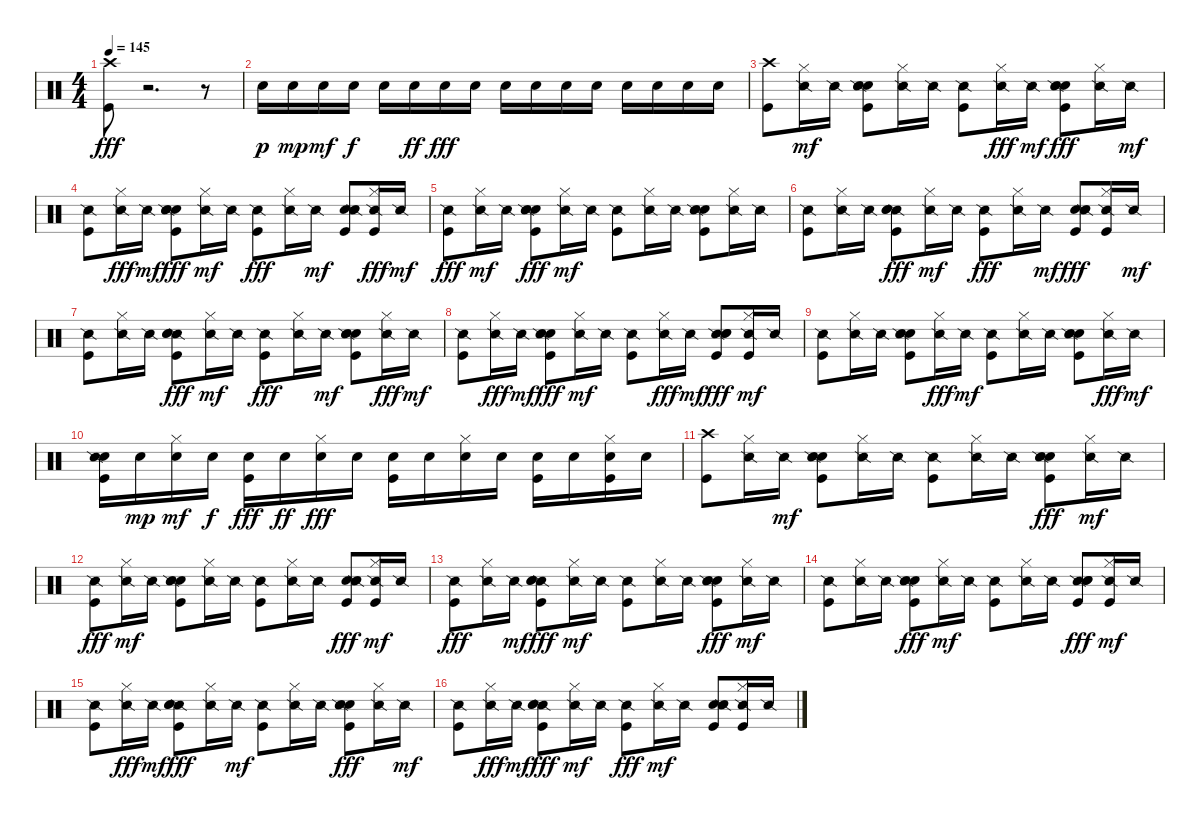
\track "" {instrument percussion}
\staff {score}
\articulation defaults
\ts (4 4)
\tempo 145
\clef neutral
\ks c
("Crash high (hit)" "Kick (hit)").8{dy fff} r.2{d} r.8 |
"Snare (hit) 2".16{dy p} "Snare (hit) 2".16{dy mp} "Snare (hit) 2".16{dy mf} "Snare (hit) 2".16{dy f} "Snare (hit) 2".16 "Snare (hit) 2".16{dy ff} "Snare (hit) 2".16{dy fff} "Snare (hit) 2".16 "Snare (hit) 2".16 "Snare (hit) 2".16 "Snare (hit) 2".16 "Snare (hit) 2".16 "Snare (hit) 2".16 "Snare (hit) 2".16 "Snare (hit) 2".16 "Snare (hit) 2".16 |
("Kick (hit)" "Crash high (hit)").8 ("Hi-Hat (closed)" "Snare (side stick) 2").16{dy mf} "Snare (side stick) 2".16 ("Kick (hit)" "Hand Clap (hit)" "Snare (side stick) 2" "Electric Snare (hit)").8 ("Hi-Hat (closed)" "Snare (side stick) 2").16 "Snare (side stick) 2".16 ("Kick (hit)" "Snare (side stick) 2").8 ("Snare (side stick) 2" "Hi-Hat (closed)").16{dy fff} "Snare (side stick) 2".16{dy mf} ("Hand Clap (hit)" "Electric Snare (hit)" "Snare (side stick) 2" "Kick (hit)").8{dy fff} ("Snare (side stick) 2" "Hi-Hat (closed)").16 "Snare (side stick) 2".16{dy mf} |
("Kick (hit)" "Snare (side stick) 2").8 ("Snare (side stick) 2" "Hi-Hat (closed)").16{dy fff} "Snare (side stick) 2".16{dy mf} ("Electric Snare (hit)" "Snare (side stick) 2" "Hand Clap (hit)" "Kick (hit)").8{dy fff} ("Hi-Hat (closed)" "Snare (side stick) 2").16{dy mf} "Snare (side stick) 2".16 ("Snare (side stick) 2" "Kick (hit)").8{dy fff} ("Snare (side stick) 2" "Hi-Hat (closed)").16 "Snare (side stick) 2".16{dy mf} ("Hand Clap (hit)" "Kick (hit)" "Snare (side stick) 2" "Electric Snare (hit)").8 ("Kick (hit)" "Snare (side stick) 2" "Hi-Hat (closed)").16{dy fff} "Snare (side stick) 2".16{dy mf} |
("Snare (side stick) 2" "Kick (hit)").8{dy fff} ("Hi-Hat (closed)" "Snare (side stick) 2").16{dy mf} "Snare (side stick) 2".16 ("Hand Clap (hit)" "Snare (side stick) 2" "Kick (hit)" "Electric Snare (hit)").8{dy fff} ("Hi-Hat (closed)" "Snare (side stick) 2").16{dy mf} "Snare (side stick) 2".16 ("Kick (hit)" "Snare (side stick) 2").8 ("Hi-Hat (closed)" "Snare (side stick) 2").16 "Snare (side stick) 2".16 ("Electric Snare (hit)" "Hand Clap (hit)" "Kick (hit)" "Snare (side stick) 2").8 ("Hi-Hat (closed)" "Snare (side stick) 2").16 "Snare (side stick) 2".16 |
("Kick (hit)" "Snare (side stick) 2").8 ("Hi-Hat (closed)" "Snare (side stick) 2").16 "Snare (side stick) 2".16 ("Snare (side stick) 2" "Kick (hit)" "Electric Snare (hit)" "Hand Clap (hit)").8{dy fff} ("Hi-Hat (closed)" "Snare (side stick) 2").16{dy mf} "Snare (side stick) 2".16 ("Snare (side stick) 2" "Kick (hit)").8{dy fff} ("Snare (side stick) 2" "Hi-Hat (closed)").16 "Snare (side stick) 2".16{dy mf} ("Electric Snare (hit)" "Kick (hit)" "Snare (side stick) 2" "Hand Clap (hit)").8{dy fff} ("Snare (side stick) 2" "Kick (hit)" "Hi-Hat (closed)").16 "Snare (side stick) 2".16{dy mf} |
("Kick (hit)" "Snare (side stick) 2").8 ("Hi-Hat (closed)" "Snare (side stick) 2").16 "Snare (side stick) 2".16 ("Snare (side stick) 2" "Electric Snare (hit)" "Hand Clap (hit)" "Kick (hit)").8{dy fff} ("Hi-Hat (closed)" "Snare (side stick) 2").16{dy mf} "Snare (side stick) 2".16 ("Snare (side stick) 2" "Kick (hit)").8{dy fff} ("Snare (side stick) 2" "Hi-Hat (closed)").16 "Snare (side stick) 2".16{dy mf} ("Hand Clap (hit)" "Electric Snare (hit)" "Kick (hit)" "Snare (side stick) 2").8 ("Snare (side stick) 2" "Hi-Hat (closed)").16{dy fff} "Snare (side stick) 2".16{dy mf} |
("Kick (hit)" "Snare (side stick) 2").8 ("Snare (side stick) 2" "Hi-Hat (closed)").16{dy fff} "Snare (side stick) 2".16{dy mf} ("Electric Snare (hit)" "Hand Clap (hit)" "Snare (side stick) 2" "Kick (hit)").8{dy fff} ("Hi-Hat (closed)" "Snare (side stick) 2").16{dy mf} "Snare (side stick) 2".16 ("Kick (hit)" "Snare (side stick) 2").8 ("Snare (side stick) 2" "Hi-Hat (closed)").16{dy fff} "Snare (side stick) 2".16{dy mf} ("Snare (side stick) 2" "Kick (hit)" "Hand Clap (hit)" "Electric Snare (hit)").8{dy fff} ("Kick (hit)" "Hi-Hat (closed)" "Snare (side stick) 2").16{dy mf} "Snare (side stick) 2".16 |
("Kick (hit)" "Snare (side stick) 2").8 ("Hi-Hat (closed)" "Snare (side stick) 2").16 "Snare (side stick) 2".16 ("Electric Snare (hit)" "Hand Clap (hit)" "Kick (hit)" "Snare (side stick) 2").8 ("Snare (side stick) 2" "Hi-Hat (closed)").16{dy fff} "Snare (side stick) 2".16{dy mf} ("Kick (hit)" "Snare (side stick) 2").8 ("Hi-Hat (closed)" "Snare (side stick) 2").16 "Snare (side stick) 2".16 ("Kick (hit)" "Hand Clap (hit)" "Electric Snare (hit)" "Snare (side stick) 2").8 ("Snare (side stick) 2" "Hi-Hat (closed)").16{dy fff} "Snare (side stick) 2".16{dy mf} |
("Kick (hit)" "Snare (hit) 2" "Snare (side stick) 2").16 "Snare (hit) 2".16{dy mp} ("Hi-Hat (closed)" "Snare (hit) 2").16{dy mf} "Snare (hit) 2".16{dy f} ("Kick (hit)" "Snare (hit) 2").16{dy fff} "Snare (hit) 2".16{dy ff} ("Snare (hit) 2" "Hi-Hat (closed)").16{dy fff} "Snare (hit) 2".16 ("Kick (hit)" "Snare (hit) 2").16 "Snare (hit) 2".16 ("Hi-Hat (closed)" "Snare (hit) 2").16 "Snare (hit) 2".16 ("Kick (hit)" "Snare (hit) 2").16 "Snare (hit) 2".16 ("Snare (hit) 2" "Hi-Hat (closed)" "Kick (hit)").16 "Snare (hit) 2".16 |
("Crash high (hit)" "Kick (hit)").8 ("Snare (side stick) 2" "Hi-Hat (closed)").16 "Snare (side stick) 2".16{dy mf} ("Electric Snare (hit)" "Hand Clap (hit)" "Kick (hit)" "Snare (side stick) 2").8 ("Hi-Hat (closed)" "Snare (side stick) 2").16 "Snare (side stick) 2".16 ("Kick (hit)" "Snare (side stick) 2").8 ("Hi-Hat (closed)" "Snare (side stick) 2").16 "Snare (side stick) 2".16 ("Electric Snare (hit)" "Snare (side stick) 2" "Hand Clap (hit)" "Kick (hit)").8{dy fff} ("Hi-Hat (closed)" "Snare (side stick) 2").16{dy mf} "Snare (side stick) 2".16 |
("Snare (side stick) 2" "Kick (hit)").8{dy fff} ("Hi-Hat (closed)" "Snare (side stick) 2").16{dy mf} "Snare (side stick) 2".16 ("Kick (hit)" "Hand Clap (hit)" "Electric Snare (hit)" "Snare (side stick) 2").8 ("Hi-Hat (closed)" "Snare (side stick) 2").16 "Snare (side stick) 2".16 ("Kick (hit)" "Snare (side stick) 2").8 ("Hi-Hat (closed)" "Snare (side stick) 2").16 "Snare (side stick) 2".16 ("Hand Clap (hit)" "Snare (side stick) 2" "Electric Snare (hit)" "Kick (hit)").8{dy fff} ("Hi-Hat (closed)" "Kick (hit)" "Snare (side stick) 2").16{dy mf} "Snare (side stick) 2".16 |
("Snare (side stick) 2" "Kick (hit)").8{dy fff} ("Snare (side stick) 2" "Hi-Hat (closed)").16 "Snare (side stick) 2".16{dy mf} ("Kick (hit)" "Snare (side stick) 2" "Hand Clap (hit)" "Electric Snare (hit)").8{dy fff} ("Hi-Hat (closed)" "Snare (side stick) 2").16{dy mf} "Snare (side stick) 2".16 ("Kick (hit)" "Snare (side stick) 2").8 ("Hi-Hat (closed)" "Snare (side stick) 2").16 "Snare (side stick) 2".16 ("Electric Snare (hit)" "Hand Clap (hit)" "Snare (side stick) 2" "Kick (hit)").8{dy fff} ("Hi-Hat (closed)" "Snare (side stick) 2").16{dy mf} "Snare (side stick) 2".16 |
("Kick (hit)" "Snare (side stick) 2").8 ("Hi-Hat (closed)" "Snare (side stick) 2").16 "Snare (side stick) 2".16 ("Hand Clap (hit)" "Electric Snare (hit)" "Snare (side stick) 2" "Kick (hit)").8{dy fff} ("Hi-Hat (closed)" "Snare (side stick) 2").16{dy mf} "Snare (side stick) 2".16 ("Kick (hit)" "Snare (side stick) 2").8 ("Hi-Hat (closed)" "Snare (side stick) 2").16 "Snare (side stick) 2".16 ("Snare (side stick) 2" "Kick (hit)" "Electric Snare (hit)" "Hand Clap (hit)").8{dy fff} ("Hi-Hat (closed)" "Kick (hit)" "Snare (side stick) 2").16{dy mf} "Snare (side stick) 2".16 |
("Kick (hit)" "Snare (side stick) 2").8 ("Snare (side stick) 2" "Hi-Hat (closed)").16{dy fff} "Snare (side stick) 2".16{dy mf} ("Snare (side stick) 2" "Electric Snare (hit)" "Hand Clap (hit)" "Kick (hit)").8{dy fff} ("Snare (side stick) 2" "Hi-Hat (closed)").16 "Snare (side stick) 2".16{dy mf} ("Kick (hit)" "Snare (side stick) 2").8 ("Hi-Hat (closed)" "Snare (side stick) 2").16 "Snare (side stick) 2".16 ("Electric Snare (hit)" "Snare (side stick) 2" "Kick (hit)" "Hand Clap (hit)").8{dy fff} ("Snare (side stick) 2" "Hi-Hat (closed)").16 "Snare (side stick) 2".16{dy mf} |
("Kick (hit)" "Snare (side stick) 2").8 ("Snare (side stick) 2" "Hi-Hat (closed)").16{dy fff} "Snare (side stick) 2".16{dy mf} ("Snare (side stick) 2" "Kick (hit)" "Electric Snare (hit)" "Hand Clap (hit)").8{dy fff} ("Hi-Hat (closed)" "Snare (side stick) 2").16{dy mf} "Snare (side stick) 2".16 ("Snare (side stick) 2" "Kick (hit)").8{dy fff} ("Hi-Hat (closed)" "Snare (side stick) 2").16{dy mf} "Snare (side stick) 2".16 ("Kick (hit)" "Electric Snare (hit)" "Hand Clap (hit)" "Snare (side stick) 2").8 ("Hi-Hat (closed)" "Kick (hit)" "Snare (side stick) 2").16 "Snare (side stick) 2".16
